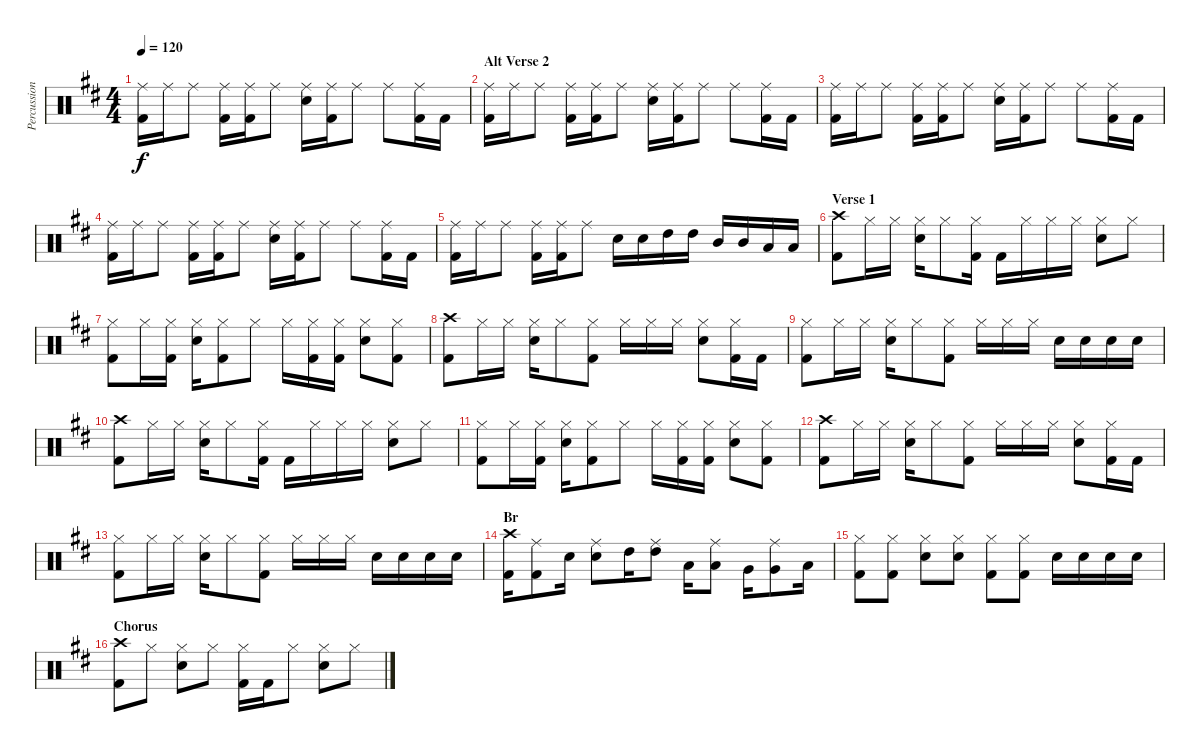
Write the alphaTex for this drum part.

\track ("Percussion" "Percussion") {instrument percussion}
\staff {score}
\articulation defaults
\ts (4 4)
\tempo 120
\clef neutral
\ks d
("Ride (middle)" "Kick (hit) 2").16{dy f} "Ride (middle)".16 "Ride (middle)".8 ("Ride (middle)" "Kick (hit) 2").16 ("Ride (middle)" "Kick (hit) 2").16 "Ride (middle)".8 ("Ride (middle)" "Snare (hit) 2").16 ("Ride (middle)" "Kick (hit) 2").16 "Ride (middle)".8 "Ride (middle)".8 ("Ride (middle)" "Kick (hit) 2").16 "Kick (hit) 2".16 |
\section ("" "Alt Verse 2")
("Ride (middle)" "Kick (hit) 2").16 "Ride (middle)".16 "Ride (middle)".8 ("Ride (middle)" "Kick (hit) 2").16 ("Ride (middle)" "Kick (hit) 2").16 "Ride (middle)".8 ("Ride (middle)" "Snare (hit) 2").16 ("Ride (middle)" "Kick (hit) 2").16 "Ride (middle)".8 "Ride (middle)".8 ("Ride (middle)" "Kick (hit) 2").16 "Kick (hit) 2".16 |
("Ride (middle)" "Kick (hit) 2").16 "Ride (middle)".16 "Ride (middle)".8 ("Ride (middle)" "Kick (hit) 2").16 ("Ride (middle)" "Kick (hit) 2").16 "Ride (middle)".8 ("Ride (middle)" "Snare (hit) 2").16 ("Ride (middle)" "Kick (hit) 2").16 "Ride (middle)".8 "Ride (middle)".8 ("Ride (middle)" "Kick (hit) 2").16 "Kick (hit) 2".16 |
("Ride (middle)" "Kick (hit) 2").16 "Ride (middle)".16 "Ride (middle)".8 ("Ride (middle)" "Kick (hit) 2").16 ("Ride (middle)" "Kick (hit) 2").16 "Ride (middle)".8 ("Ride (middle)" "Snare (hit) 2").16 ("Ride (middle)" "Kick (hit) 2").16 "Ride (middle)".8 "Ride (middle)".8 ("Ride (middle)" "Kick (hit) 2").16 "Kick (hit) 2".16 |
("Ride (middle)" "Kick (hit) 2").16 "Ride (middle)".16 "Ride (middle)".8 ("Ride (middle)" "Kick (hit) 2").16 ("Ride (middle)" "Kick (hit) 2").16 "Ride (middle)".8 "Snare (hit) 2".16 "Snare (hit) 2".16 "High Tom (hit)".16 "High Tom (hit)".16 "Mid Tom (hit)".16 "Mid Tom (hit)".16 "Low Tom (hit)".16 "Low Tom (hit)".16 |
\section ("" "Verse 1")
("Crash high (hit)" "Kick (hit) 2").8 "Hi-Hat (closed)".16 "Hi-Hat (closed)".16 ("Hi-Hat (closed)" "Snare (hit) 2").16 "Hi-Hat (closed)".8 ("Hi-Hat (closed)" "Kick (hit) 2").16 "Kick (hit) 2".16 "Hi-Hat (closed)".16 "Hi-Hat (closed)".16 "Hi-Hat (closed)".16 ("Hi-Hat (closed)" "Snare (hit) 2").8 "Hi-Hat (closed)".8 |
("Hi-Hat (closed)" "Kick (hit) 2").8 "Hi-Hat (closed)".16 ("Hi-Hat (closed)" "Kick (hit) 2").16 ("Hi-Hat (closed)" "Snare (hit) 2").16 ("Hi-Hat (closed)" "Kick (hit) 2").8 "Hi-Hat (closed)".8 "Hi-Hat (closed)".16 ("Hi-Hat (closed)" "Kick (hit) 2").16 ("Hi-Hat (closed)" "Kick (hit) 2").16 ("Hi-Hat (closed)" "Snare (hit) 2").8 ("Hi-Hat (closed)" "Kick (hit) 2").8 |
("Crash high (hit)" "Kick (hit) 2").8 "Hi-Hat (closed)".16 "Hi-Hat (closed)".16 ("Hi-Hat (closed)" "Snare (hit) 2").16 "Hi-Hat (closed)".8 ("Hi-Hat (closed)" "Kick (hit) 2").8 "Hi-Hat (closed)".16 "Hi-Hat (closed)".16 "Hi-Hat (closed)".16 ("Hi-Hat (closed)" "Snare (hit) 2").8 ("Hi-Hat (closed)" "Kick (hit) 2").16 "Kick (hit) 2".16 |
("Hi-Hat (closed)" "Kick (hit) 2").8 "Hi-Hat (closed)".16 "Hi-Hat (closed)".16 ("Hi-Hat (closed)" "Snare (hit) 2").16 "Hi-Hat (closed)".8 ("Hi-Hat (closed)" "Kick (hit) 2").8 "Hi-Hat (closed)".16 "Hi-Hat (closed)".16 "Hi-Hat (closed)".16 "Snare (hit) 2".16 "Snare (hit) 2".16 "Snare (hit) 2".16 "Snare (hit) 2".16 |
("Crash high (hit)" "Kick (hit) 2").8 "Hi-Hat (closed)".16 "Hi-Hat (closed)".16 ("Hi-Hat (closed)" "Snare (hit) 2").16 "Hi-Hat (closed)".8 ("Hi-Hat (closed)" "Kick (hit) 2").16 "Kick (hit) 2".16 "Hi-Hat (closed)".16 "Hi-Hat (closed)".16 "Hi-Hat (closed)".16 ("Hi-Hat (closed)" "Snare (hit) 2").8 "Hi-Hat (closed)".8 |
("Hi-Hat (closed)" "Kick (hit) 2").8 "Hi-Hat (closed)".16 ("Hi-Hat (closed)" "Kick (hit) 2").16 ("Hi-Hat (closed)" "Snare (hit) 2").16 ("Hi-Hat (closed)" "Kick (hit) 2").8 "Hi-Hat (closed)".8 "Hi-Hat (closed)".16 ("Hi-Hat (closed)" "Kick (hit) 2").16 ("Hi-Hat (closed)" "Kick (hit) 2").16 ("Hi-Hat (closed)" "Snare (hit) 2").8 ("Hi-Hat (closed)" "Kick (hit) 2").8 |
("Crash high (hit)" "Kick (hit) 2").8 "Hi-Hat (closed)".16 "Hi-Hat (closed)".16 ("Hi-Hat (closed)" "Snare (hit) 2").16 "Hi-Hat (closed)".8 ("Hi-Hat (closed)" "Kick (hit) 2").8 "Hi-Hat (closed)".16 "Hi-Hat (closed)".16 "Hi-Hat (closed)".16 ("Hi-Hat (closed)" "Snare (hit) 2").8 ("Hi-Hat (closed)" "Kick (hit) 2").16 "Kick (hit) 2".16 |
("Hi-Hat (closed)" "Kick (hit) 2").8 "Hi-Hat (closed)".16 "Hi-Hat (closed)".16 ("Hi-Hat (closed)" "Snare (hit) 2").16 "Hi-Hat (closed)".8 ("Hi-Hat (closed)" "Kick (hit) 2").8 "Hi-Hat (closed)".16 "Hi-Hat (closed)".16 "Hi-Hat (closed)".16 "Snare (hit) 2".16 "Snare (hit) 2".16 "Snare (hit) 2".16 "Snare (hit) 2".16 |
\section ("" "Br")
("Crash high (hit)" "Kick (hit) 2").16 ("Ride (middle)" "Kick (hit) 2").8 "Snare (hit) 2".16 ("Ride (middle)" "Snare (hit) 2").8 "High Tom (hit)".16 ("Ride (middle)" "High Tom (hit)").8 "Low Tom (hit)".16 ("Ride (middle)" "Low Tom (hit)").8 "Very Low Tom (hit)".16 ("Ride (middle)" "Very Low Tom (hit)").8 "Low Floor Tom (hit)".16 |
("Hi-Hat (closed)" "Kick (hit) 2").8 ("Hi-Hat (closed)" "Kick (hit) 2").8 ("Hi-Hat (closed)" "Snare (hit) 2").8 ("Hi-Hat (closed)" "Snare (hit) 2").8 ("Hi-Hat (closed)" "Kick (hit) 2").8 ("Hi-Hat (closed)" "Kick (hit) 2").8 "Snare (hit) 2".16 "Snare (hit) 2".16 "Snare (hit) 2".16 "Snare (hit) 2".16 |
\section ("" "Chorus")
("Crash high (hit)" "Kick (hit) 2").8 "Hi-Hat (closed)".8 ("Hi-Hat (closed)" "Snare (hit) 2").8 "Hi-Hat (closed)".8 ("Hi-Hat (closed)" "Kick (hit) 2").16 "Kick (hit) 2".16 "Hi-Hat (closed)".8 ("Hi-Hat (closed)" "Snare (hit) 2").8 "Hi-Hat (closed)".8
